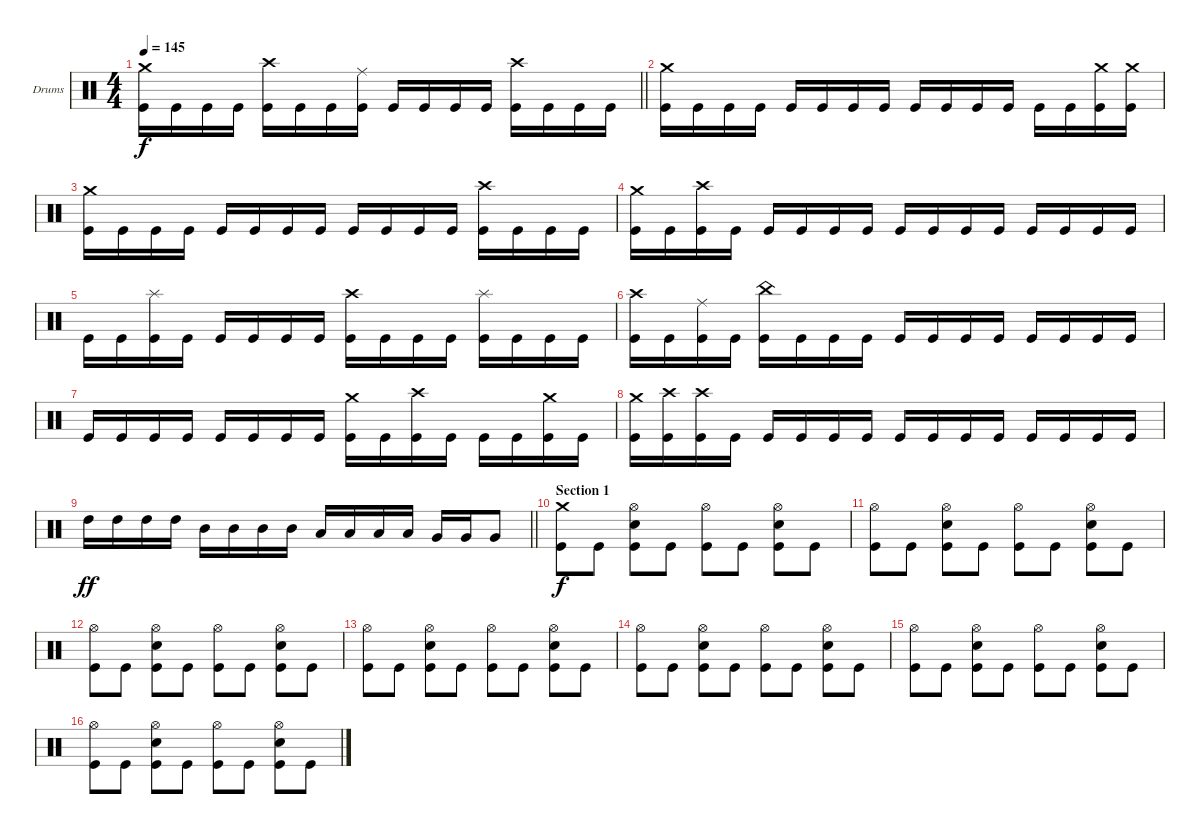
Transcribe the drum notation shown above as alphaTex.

\defaultSystemsLayout 4
\bracketExtendMode groupsimilarinstruments
\firstSystemTrackNameOrientation horizontal
\otherSystemsTrackNameOrientation horizontal
\track ("Drums" "Drums") {instrument percussion}
\staff {score}
\articulation defaults
\ts (4 4)
\tempo 145
\clef neutral
\barLineRight lightlight
\ks c
("Kick (hit)" "Crash medium (hit)").16{dy f} "Kick (hit)".16 "Kick (hit)".16 "Kick (hit)".16 ("Kick (hit)" "Crash high (hit)").16 "Kick (hit)".16 "Kick (hit)".16 ("Kick (hit)" "Ride (middle)").16 "Kick (hit)".16 "Kick (hit)".16 "Kick (hit)".16 "Kick (hit)".16 ("Kick (hit)" "Crash high (hit)").16 "Kick (hit)".16 "Kick (hit)".16 "Kick (hit)".16 |
("Kick (hit)" "Crash medium (hit)").16 "Kick (hit)".16 "Kick (hit)".16 "Kick (hit)".16 "Kick (hit)".16 "Kick (hit)".16 "Kick (hit)".16 "Kick (hit)".16 "Kick (hit)".16 "Kick (hit)".16 "Kick (hit)".16 "Kick (hit)".16 "Kick (hit)".16 "Kick (hit)".16 ("Kick (hit)" "Crash medium (hit)").16 ("Kick (hit)" "Crash medium (hit)").16 |
("Kick (hit)" "Crash medium (hit)").16 "Kick (hit)".16 "Kick (hit)".16 "Kick (hit)".16 "Kick (hit)".16 "Kick (hit)".16 "Kick (hit)".16 "Kick (hit)".16 "Kick (hit)".16 "Kick (hit)".16 "Kick (hit)".16 "Kick (hit)".16 ("Kick (hit)" "Crash high (hit)").16 "Kick (hit)".16 "Kick (hit)".16 "Kick (hit)".16 |
("Kick (hit)" "Crash medium (hit)").16 "Kick (hit)".16 ("Kick (hit)" "Crash high (hit)").16 "Kick (hit)".16 "Kick (hit)".16 "Kick (hit)".16 "Kick (hit)".16 "Kick (hit)".16 "Kick (hit)".16 "Kick (hit)".16 "Kick (hit)".16 "Kick (hit)".16 "Kick (hit)".16 "Kick (hit)".16 "Kick (hit)".16 "Kick (hit)".16 |
"Kick (hit)".16 "Kick (hit)".16 ("Kick (hit)" "Splash (hit)").16 "Kick (hit)".16 "Kick (hit)".16 "Kick (hit)".16 "Kick (hit)".16 "Kick (hit)".16 ("Kick (hit)" "Crash high (hit)").16 "Kick (hit)".16 "Kick (hit)".16 "Kick (hit)".16 ("Kick (hit)" "Splash (hit)").16 "Kick (hit)".16 "Kick (hit)".16 "Kick (hit)".16 |
("Kick (hit)" "Crash high (hit)").16 "Kick (hit)".16 ("Kick (hit)" "Ride (middle)").16 "Kick (hit)".16 ("Kick (hit)" "China (hit)").16 "Kick (hit)".16 "Kick (hit)".16 "Kick (hit)".16 "Kick (hit)".16 "Kick (hit)".16 "Kick (hit)".16 "Kick (hit)".16 "Kick (hit)".16 "Kick (hit)".16 "Kick (hit)".16 "Kick (hit)".16 |
"Kick (hit)".16 "Kick (hit)".16 "Kick (hit)".16 "Kick (hit)".16 "Kick (hit)".16 "Kick (hit)".16 "Kick (hit)".16 "Kick (hit)".16 ("Kick (hit)" "Crash medium (hit)").16 "Kick (hit)".16 ("Kick (hit)" "Crash high (hit)").16 "Kick (hit)".16 "Kick (hit)".16 "Kick (hit)".16 ("Kick (hit)" "Crash medium (hit)").16 "Kick (hit)".16 |
("Kick (hit)" "Crash medium (hit)").16 ("Kick (hit)" "Crash high (hit)").16 ("Kick (hit)" "Crash high (hit)").16 "Kick (hit)".16 "Kick (hit)".16 "Kick (hit)".16 "Kick (hit)".16 "Kick (hit)".16 "Kick (hit)".16 "Kick (hit)".16 "Kick (hit)".16 "Kick (hit)".16 "Kick (hit)".16 "Kick (hit)".16 "Kick (hit)".16 "Kick (hit)".16 |
\barLineRight lightlight "High Tom (hit)".16{dy ff} "High Tom (hit)".16 "High Tom (hit)".16 "High Tom (hit)".16 "Mid Tom (hit)".16 "Mid Tom (hit)".16 "Mid Tom (hit)".16 "Mid Tom (hit)".16 "Low Tom (hit)".16 "Low Tom (hit)".16 "Low Tom (hit)".16 "Low Tom (hit)".16 "Very Low Tom (hit)".16 "Very Low Tom (hit)".16 "Very Low Tom (hit)".8
|
\section ("" "Section 1")
("Kick (hit)" "Crash medium (hit)").8{dy f} "Kick (hit)".8 ("Snare (hit) 2" "Hi-Hat (open)" "Kick (hit)").8 "Kick (hit)".8 ("Kick (hit)" "Hi-Hat (open)").8 "Kick (hit)".8 ("Snare (hit) 2" "Hi-Hat (open)" "Kick (hit)").8 "Kick (hit)".8 |
("Kick (hit)" "Hi-Hat (open)").8 "Kick (hit)".8 ("Snare (hit) 2" "Hi-Hat (open)" "Kick (hit)").8 "Kick (hit)".8 ("Kick (hit)" "Hi-Hat (open)").8 "Kick (hit)".8 ("Snare (hit) 2" "Hi-Hat (open)" "Kick (hit)").8 "Kick (hit)".8 |
("Kick (hit)" "Hi-Hat (open)").8 "Kick (hit)".8 ("Snare (hit) 2" "Hi-Hat (open)" "Kick (hit)").8 "Kick (hit)".8 ("Kick (hit)" "Hi-Hat (open)").8 "Kick (hit)".8 ("Snare (hit) 2" "Hi-Hat (open)" "Kick (hit)").8 "Kick (hit)".8 |
("Kick (hit)" "Hi-Hat (open)").8 "Kick (hit)".8 ("Snare (hit) 2" "Hi-Hat (open)" "Kick (hit)").8 "Kick (hit)".8 ("Kick (hit)" "Hi-Hat (open)").8 "Kick (hit)".8 ("Snare (hit) 2" "Hi-Hat (open)" "Kick (hit)").8 "Kick (hit)".8 |
("Kick (hit)" "Hi-Hat (open)").8 "Kick (hit)".8 ("Snare (hit) 2" "Hi-Hat (open)" "Kick (hit)").8 "Kick (hit)".8 ("Kick (hit)" "Hi-Hat (open)").8 "Kick (hit)".8 ("Snare (hit) 2" "Hi-Hat (open)" "Kick (hit)").8 "Kick (hit)".8 |
("Kick (hit)" "Hi-Hat (open)").8 "Kick (hit)".8 ("Snare (hit) 2" "Hi-Hat (open)" "Kick (hit)").8 "Kick (hit)".8 ("Kick (hit)" "Hi-Hat (open)").8 "Kick (hit)".8 ("Snare (hit) 2" "Hi-Hat (open)" "Kick (hit)").8 "Kick (hit)".8 |
("Kick (hit)" "Hi-Hat (open)").8 "Kick (hit)".8 ("Snare (hit) 2" "Hi-Hat (open)" "Kick (hit)").8 "Kick (hit)".8 ("Kick (hit)" "Hi-Hat (open)").8 "Kick (hit)".8 ("Snare (hit) 2" "Hi-Hat (open)" "Kick (hit)").8 "Kick (hit)".8
